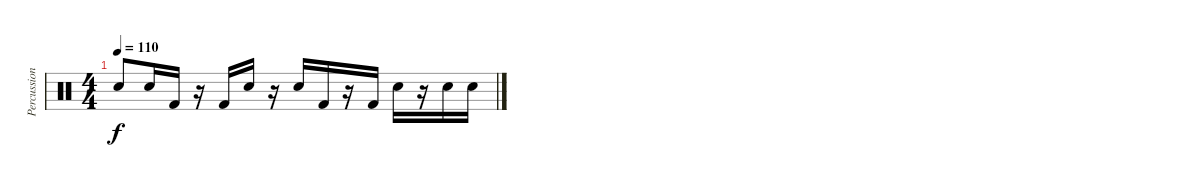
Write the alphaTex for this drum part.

\track ("Percussion" "Percussion") {instrument percussion}
\staff {score}
\articulation defaults
\ts (4 4)
\tempo 110
\clef neutral
\ks c "Electric Snare (hit)".8{dy f} "Electric Snare (hit)".16 "Kick (hit) 2".16
r.16 "Kick (hit) 2".16 "Electric Snare (hit)".16 r.16 "Electric Snare (hit)".16 "Kick (hit) 2".16 r.16 "Kick (hit) 2".16 "Electric Snare (hit)".16 r.16 "Electric Snare (hit)".16 "Electric Snare (hit)".16
